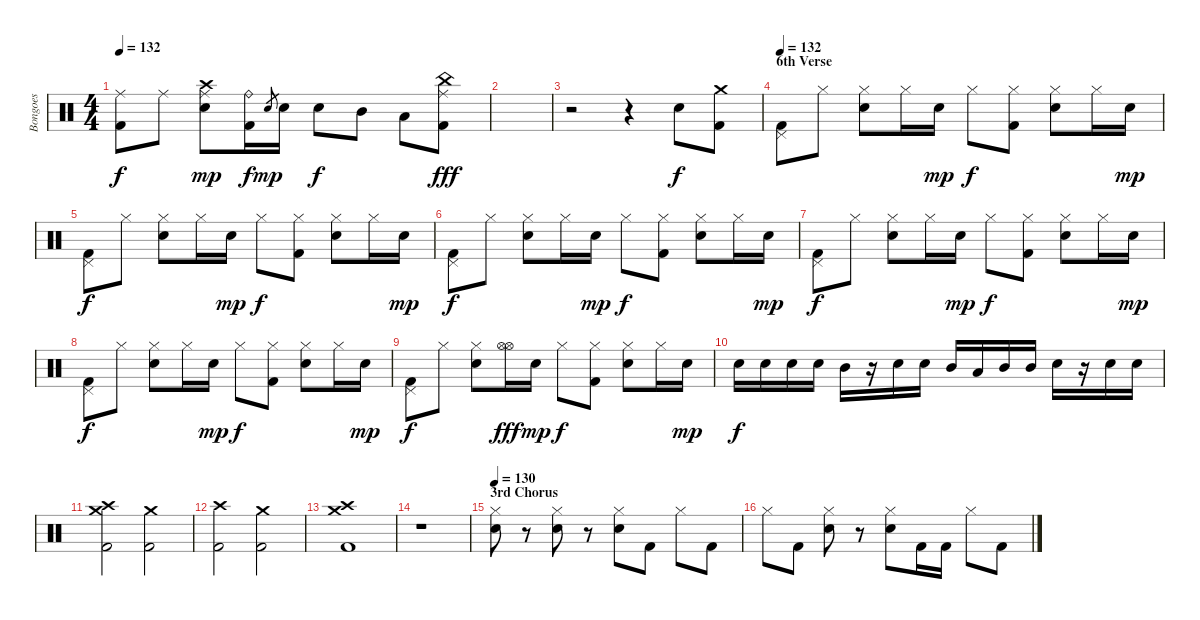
\track ("Bongoes" "Bongoes") {instrument percussion}
\staff {score}
\articulation defaults
\ts (4 4)
\tempo 132
\clef neutral
\ks c
("Ride (middle)" "Kick (hit) 2").8{dy f} "Ride (middle)".8 ("Ride (middle)" "Snare (hit) 2" "Crash high (hit)").8{dy mp} ("Ride (bell)" "Kick (hit) 2").16{dy f} "Snare (hit) 2".8{gr dy mp} "Snare (hit) 2".16 "Snare (hit) 2".8{dy f} "Mid Tom (hit)".8 "Low Tom (hit)".8 ("Ride (middle)" "China (hit)" "Kick (hit) 2").8{dy fff} |
|
r.2 r.4 "Snare (hit) 2".8{dy f} ("Kick (hit) 2" "Crash medium (hit)").8 |
\section ("" "6th Verse")
\tempo 132
("Kick (hit) 2" "Pedal Hi-Hat (hit)").8 "Hi-Hat (closed)".8 ("Snare (hit) 2" "Hi-Hat (closed)").8 "Hi-Hat (closed)".16 "Snare (hit) 2".16{dy mp} "Hi-Hat (closed)".8{dy f} ("Kick (hit) 2" "Hi-Hat (closed)").8 ("Snare (hit) 2" "Hi-Hat (closed)").8 "Hi-Hat (closed)".16 "Snare (hit) 2".16{dy mp} |
("Kick (hit) 2" "Pedal Hi-Hat (hit)").8{dy f} "Hi-Hat (closed)".8 ("Snare (hit) 2" "Hi-Hat (closed)").8 "Hi-Hat (closed)".16 "Snare (hit) 2".16{dy mp} "Hi-Hat (closed)".8{dy f} ("Kick (hit) 2" "Hi-Hat (closed)").8 ("Snare (hit) 2" "Hi-Hat (closed)").8 "Hi-Hat (closed)".16 "Snare (hit) 2".16{dy mp} |
("Kick (hit) 2" "Pedal Hi-Hat (hit)").8{dy f} "Hi-Hat (closed)".8 ("Snare (hit) 2" "Hi-Hat (closed)").8 "Hi-Hat (closed)".16 "Snare (hit) 2".16{dy mp} "Hi-Hat (closed)".8{dy f} ("Kick (hit) 2" "Hi-Hat (closed)").8 ("Snare (hit) 2" "Hi-Hat (closed)").8 "Hi-Hat (closed)".16 "Snare (hit) 2".16{dy mp} |
("Kick (hit) 2" "Pedal Hi-Hat (hit)").8{dy f} "Hi-Hat (closed)".8 ("Snare (hit) 2" "Hi-Hat (closed)").8 "Hi-Hat (closed)".16 "Snare (hit) 2".16{dy mp} "Hi-Hat (closed)".8{dy f} ("Kick (hit) 2" "Hi-Hat (closed)").8 ("Snare (hit) 2" "Hi-Hat (closed)").8 "Hi-Hat (closed)".16 "Snare (hit) 2".16{dy mp} |
("Kick (hit) 2" "Pedal Hi-Hat (hit)").8{dy f} "Hi-Hat (closed)".8 ("Snare (hit) 2" "Hi-Hat (closed)").8 "Hi-Hat (closed)".16 "Snare (hit) 2".16{dy mp} "Hi-Hat (closed)".8{dy f} ("Kick (hit) 2" "Hi-Hat (closed)").8 ("Snare (hit) 2" "Hi-Hat (closed)").8 "Hi-Hat (closed)".16 "Snare (hit) 2".16{dy mp} |
("Kick (hit) 2" "Pedal Hi-Hat (hit)").8{dy f} "Hi-Hat (closed)".8 ("Snare (hit) 2" "Hi-Hat (closed)").8 ("Hi-Hat (open)" "Hi-Hat (open)").16{dy fff} "Snare (hit) 2".16{dy mp} "Hi-Hat (closed)".8{dy f} ("Kick (hit) 2" "Hi-Hat (closed)").8 ("Snare (hit) 2" "Hi-Hat (closed)").8 "Hi-Hat (closed)".16 "Snare (hit) 2".16{dy mp} |
"Snare (hit) 2".16{dy f} "Snare (hit) 2".16 "Snare (hit) 2".16 "Snare (hit) 2".16 "Mid Tom (hit)".16 r.16 "Snare (hit) 2".16 "Snare (hit) 2".16 "Mid Tom (hit)".16 "Low Tom (hit)".16 "Mid Tom (hit)".16 "Mid Tom (hit)".16 "Snare (hit) 2".16 r.16 "Snare (hit) 2".16 "Snare (hit) 2".16 |
("Kick (hit) 2" "Crash medium (hit)" "Crash high (hit)").2 ("Kick (hit) 2" "Crash medium (hit)").2 |
("Kick (hit) 2" "Crash high (hit)").2 ("Kick (hit) 2" "Crash medium (hit)").2 |
("Kick (hit) 2" "Crash medium (hit)" "Crash high (hit)").1 |
r.1 |
\section ("" "3rd Chorus")
\tempo 130
("Hi-Hat (closed)" "Snare (hit) 2").8 r.8 ("Hi-Hat (closed)" "Snare (hit) 2").8 r.8 ("Hi-Hat (closed)" "Snare (hit) 2").8 "Kick (hit) 2".8 "Hi-Hat (closed)".8 "Kick (hit) 2".8 |
"Hi-Hat (closed)".8 "Kick (hit) 2".8 ("Hi-Hat (closed)" "Snare (hit) 2").8 r.8 ("Hi-Hat (closed)" "Snare (hit) 2").8 "Kick (hit) 2".16 "Kick (hit) 2".16 "Hi-Hat (closed)".8 "Kick (hit) 2".8
